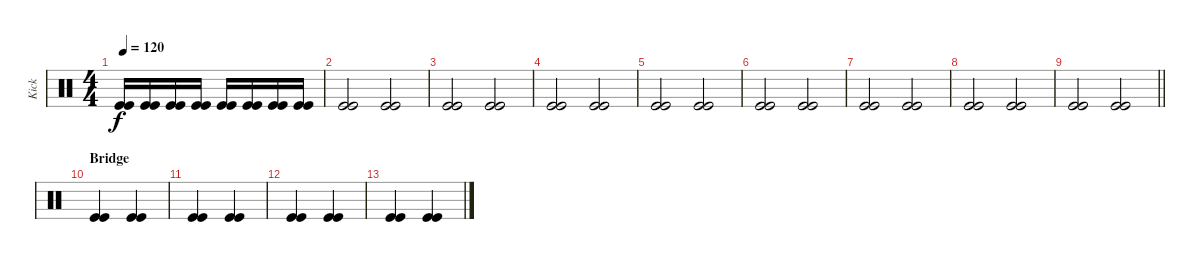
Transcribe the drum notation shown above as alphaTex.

\track ("Kick" "Kick") {instrument percussion bank 2}
\staff {score}
\articulation defaults
\ts (4 4)
\tempo 120
\clef neutral
\ks c
("Kick (hit)" "Kick (hit)").16{dy f beam merge} ("Kick (hit)" "Kick (hit)").16 ("Kick (hit)" "Kick (hit)").16{beam merge} ("Kick (hit)" "Kick (hit)").16 ("Kick (hit)" "Kick (hit)").16 ("Kick (hit)" "Kick (hit)").16{beam merge} ("Kick (hit)" "Kick (hit)").16 ("Kick (hit)" "Kick (hit)").16 |
("Kick (hit)" "Kick (hit)").2{beam merge} ("Kick (hit)" "Kick (hit)").2 |
("Kick (hit)" "Kick (hit)").2 ("Kick (hit)" "Kick (hit)").2 |
("Kick (hit)" "Kick (hit)").2 ("Kick (hit)" "Kick (hit)").2 |
("Kick (hit)" "Kick (hit)").2 ("Kick (hit)" "Kick (hit)").2 |
("Kick (hit)" "Kick (hit)").2 ("Kick (hit)" "Kick (hit)").2 |
("Kick (hit)" "Kick (hit)").2 ("Kick (hit)" "Kick (hit)").2 |
("Kick (hit)" "Kick (hit)").2 ("Kick (hit)" "Kick (hit)").2 |
\barLineRight lightlight
("Kick (hit)" "Kick (hit)").2 ("Kick (hit)" "Kick (hit)").2 |
\section ("" "Bridge")
("Kick (hit)" "Kick (hit)").4 ("Kick (hit)" "Kick (hit)").4 |
("Kick (hit)" "Kick (hit)").4{beam merge} ("Kick (hit)" "Kick (hit)").4 |
("Kick (hit)" "Kick (hit)").4{beam merge} ("Kick (hit)" "Kick (hit)").4 |
("Kick (hit)" "Kick (hit)").4{beam merge} ("Kick (hit)" "Kick (hit)").4
